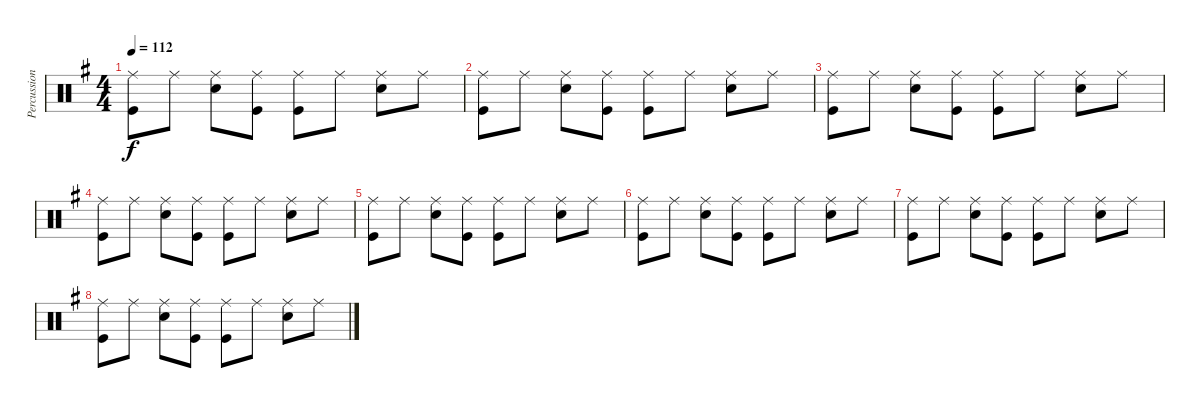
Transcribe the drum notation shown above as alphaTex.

\track ("Percussion" "Percussion") {instrument percussion}
\staff {score}
\articulation defaults
\ts (4 4)
\tempo 112
\clef neutral
\ks g
("Ride (middle)" "Kick (hit)").8{dy f} "Ride (middle)".8 ("Ride (middle)" "Snare (hit) 2").8 ("Ride (middle)" "Kick (hit)").8 ("Ride (middle)" "Kick (hit)").8 "Ride (middle)".8 ("Ride (middle)" "Snare (hit) 2").8 "Ride (middle)".8 |
("Ride (middle)" "Kick (hit)").8 "Ride (middle)".8 ("Ride (middle)" "Snare (hit) 2").8 ("Ride (middle)" "Kick (hit)").8 ("Ride (middle)" "Kick (hit)").8 "Ride (middle)".8 ("Ride (middle)" "Snare (hit) 2").8 "Ride (middle)".8 |
("Ride (middle)" "Kick (hit)").8 "Ride (middle)".8 ("Ride (middle)" "Snare (hit) 2").8 ("Ride (middle)" "Kick (hit)").8 ("Ride (middle)" "Kick (hit)").8 "Ride (middle)".8 ("Ride (middle)" "Snare (hit) 2").8 "Ride (middle)".8 |
("Ride (middle)" "Kick (hit)").8 "Ride (middle)".8 ("Ride (middle)" "Snare (hit) 2").8 ("Ride (middle)" "Kick (hit)").8 ("Ride (middle)" "Kick (hit)").8 "Ride (middle)".8 ("Ride (middle)" "Snare (hit) 2").8 "Ride (middle)".8 |
("Ride (middle)" "Kick (hit)").8 "Ride (middle)".8 ("Ride (middle)" "Snare (hit) 2").8 ("Ride (middle)" "Kick (hit)").8 ("Ride (middle)" "Kick (hit)").8 "Ride (middle)".8 ("Ride (middle)" "Snare (hit) 2").8 "Ride (middle)".8 |
("Ride (middle)" "Kick (hit)").8 "Ride (middle)".8 ("Ride (middle)" "Snare (hit) 2").8 ("Ride (middle)" "Kick (hit)").8 ("Ride (middle)" "Kick (hit)").8 "Ride (middle)".8 ("Ride (middle)" "Snare (hit) 2").8 "Ride (middle)".8 |
("Ride (middle)" "Kick (hit)").8 "Ride (middle)".8 ("Ride (middle)" "Snare (hit) 2").8 ("Ride (middle)" "Kick (hit)").8 ("Ride (middle)" "Kick (hit)").8 "Ride (middle)".8 ("Ride (middle)" "Snare (hit) 2").8 "Ride (middle)".8 |
("Ride (middle)" "Kick (hit)").8 "Ride (middle)".8 ("Ride (middle)" "Snare (hit) 2").8 ("Ride (middle)" "Kick (hit)").8 ("Ride (middle)" "Kick (hit)").8 "Ride (middle)".8 ("Ride (middle)" "Snare (hit) 2").8 "Ride (middle)".8
